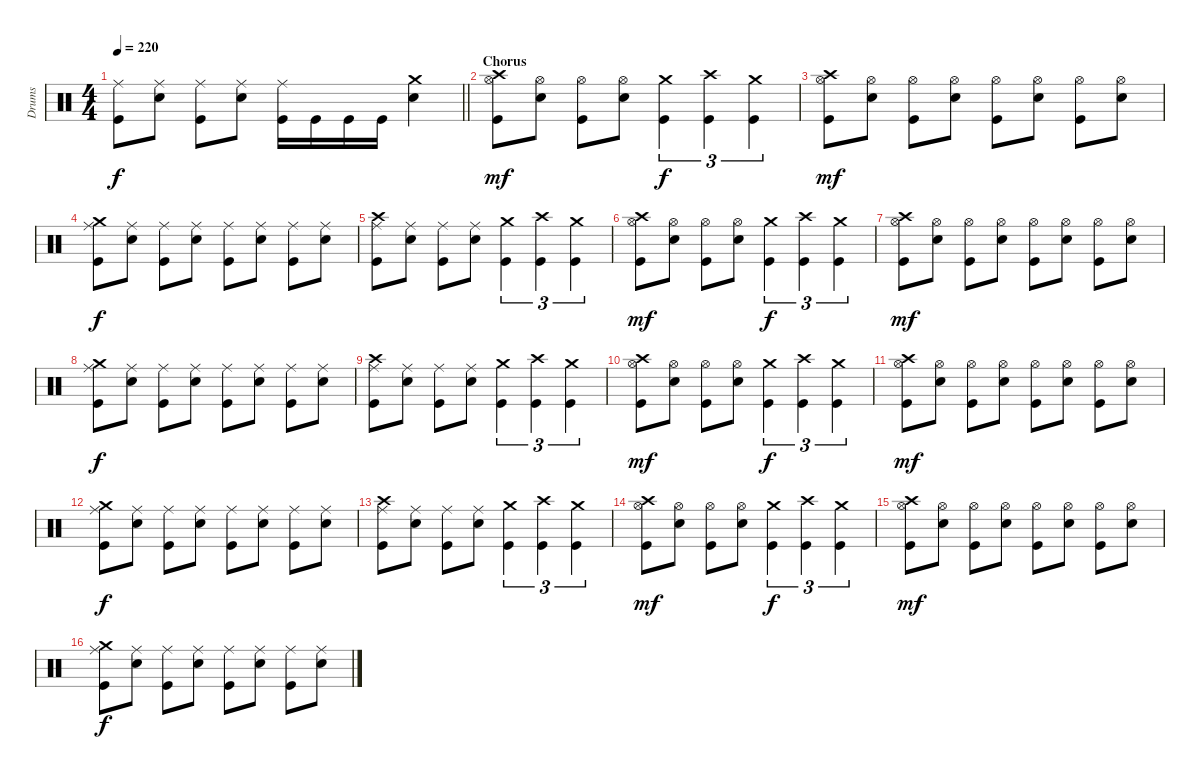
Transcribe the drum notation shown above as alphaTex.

\track ("Drums" "Drums") {instrument percussion}
\staff {score}
\articulation defaults
\ts (4 4)
\tempo 220
\clef neutral
\barLineRight lightlight
\ks c
("Ride (middle)" "Kick (hit)").8{dy f} ("Ride (middle)" "Electric Snare (hit)").8 ("Ride (middle)" "Kick (hit)").8 ("Ride (middle)" "Electric Snare (hit)").8 ("Ride (middle)" "Kick (hit)").16 "Kick (hit)".16 "Kick (hit)".16 "Kick (hit)".16 ("Crash medium (hit)" "Electric Snare (hit)").4 |
\section ("" "Chorus")
("Crash high (hit)" "Hi-Hat (open)" "Kick (hit)").8{dy mf} ("Hi-Hat (open)" "Electric Snare (hit)").8 ("Hi-Hat (open)" "Kick (hit)").8 ("Hi-Hat (open)" "Electric Snare (hit)").8 ("Crash medium (hit)" "Kick (hit)").4{tu (3 2) dy f} ("Crash high (hit)" "Kick (hit)").4{tu (3 2)} ("Crash medium (hit)" "Kick (hit)").4{tu (3 2)} |
("Crash high (hit)" "Hi-Hat (open)" "Kick (hit)").8{dy mf} ("Hi-Hat (open)" "Electric Snare (hit)").8 ("Hi-Hat (open)" "Kick (hit)").8 ("Hi-Hat (open)" "Electric Snare (hit)").8 ("Hi-Hat (open)" "Kick (hit)").8 ("Hi-Hat (open)" "Electric Snare (hit)").8 ("Hi-Hat (open)" "Kick (hit)").8 ("Hi-Hat (open)" "Electric Snare (hit)").8 |
("Crash medium (hit)" "Ride (middle)" "Kick (hit)").8{dy f} ("Ride (middle)" "Electric Snare (hit)").8 ("Ride (middle)" "Kick (hit)").8 ("Ride (middle)" "Electric Snare (hit)").8 ("Ride (middle)" "Kick (hit)").8 ("Ride (middle)" "Electric Snare (hit)").8 ("Ride (middle)" "Kick (hit)").8 ("Ride (middle)" "Electric Snare (hit)").8 |
("Crash high (hit)" "Ride (middle)" "Kick (hit)").8 ("Ride (middle)" "Electric Snare (hit)").8 ("Ride (middle)" "Kick (hit)").8 ("Ride (middle)" "Electric Snare (hit)").8 ("Crash medium (hit)" "Kick (hit)").4{tu (3 2)} ("Crash high (hit)" "Kick (hit)").4{tu (3 2)} ("Crash medium (hit)" "Kick (hit)").4{tu (3 2)} |
("Crash high (hit)" "Hi-Hat (open)" "Kick (hit)").8{dy mf} ("Hi-Hat (open)" "Electric Snare (hit)").8 ("Hi-Hat (open)" "Kick (hit)").8 ("Hi-Hat (open)" "Electric Snare (hit)").8 ("Crash medium (hit)" "Kick (hit)").4{tu (3 2) dy f} ("Crash high (hit)" "Kick (hit)").4{tu (3 2)} ("Crash medium (hit)" "Kick (hit)").4{tu (3 2)} |
("Crash high (hit)" "Hi-Hat (open)" "Kick (hit)").8{dy mf} ("Hi-Hat (open)" "Electric Snare (hit)").8 ("Hi-Hat (open)" "Kick (hit)").8 ("Hi-Hat (open)" "Electric Snare (hit)").8 ("Hi-Hat (open)" "Kick (hit)").8 ("Hi-Hat (open)" "Electric Snare (hit)").8 ("Hi-Hat (open)" "Kick (hit)").8 ("Hi-Hat (open)" "Electric Snare (hit)").8 |
("Crash medium (hit)" "Ride (middle)" "Kick (hit)").8{dy f} ("Ride (middle)" "Electric Snare (hit)").8 ("Ride (middle)" "Kick (hit)").8 ("Ride (middle)" "Electric Snare (hit)").8 ("Ride (middle)" "Kick (hit)").8 ("Ride (middle)" "Electric Snare (hit)").8 ("Ride (middle)" "Kick (hit)").8 ("Ride (middle)" "Electric Snare (hit)").8 |
("Crash high (hit)" "Ride (middle)" "Kick (hit)").8 ("Ride (middle)" "Electric Snare (hit)").8 ("Ride (middle)" "Kick (hit)").8 ("Ride (middle)" "Electric Snare (hit)").8 ("Crash medium (hit)" "Kick (hit)").4{tu (3 2)} ("Crash high (hit)" "Kick (hit)").4{tu (3 2)} ("Crash medium (hit)" "Kick (hit)").4{tu (3 2)} |
("Crash high (hit)" "Hi-Hat (open)" "Kick (hit)").8{dy mf} ("Hi-Hat (open)" "Electric Snare (hit)").8 ("Hi-Hat (open)" "Kick (hit)").8 ("Hi-Hat (open)" "Electric Snare (hit)").8 ("Crash medium (hit)" "Kick (hit)").4{tu (3 2) dy f} ("Crash high (hit)" "Kick (hit)").4{tu (3 2)} ("Crash medium (hit)" "Kick (hit)").4{tu (3 2)} |
("Crash high (hit)" "Hi-Hat (open)" "Kick (hit)").8{dy mf} ("Hi-Hat (open)" "Electric Snare (hit)").8 ("Hi-Hat (open)" "Kick (hit)").8 ("Hi-Hat (open)" "Electric Snare (hit)").8 ("Hi-Hat (open)" "Kick (hit)").8 ("Hi-Hat (open)" "Electric Snare (hit)").8 ("Hi-Hat (open)" "Kick (hit)").8 ("Hi-Hat (open)" "Electric Snare (hit)").8 |
("Crash medium (hit)" "Ride (middle)" "Kick (hit)").8{dy f} ("Ride (middle)" "Electric Snare (hit)").8 ("Ride (middle)" "Kick (hit)").8 ("Ride (middle)" "Electric Snare (hit)").8 ("Ride (middle)" "Kick (hit)").8 ("Ride (middle)" "Electric Snare (hit)").8 ("Ride (middle)" "Kick (hit)").8 ("Ride (middle)" "Electric Snare (hit)").8 |
("Crash high (hit)" "Ride (middle)" "Kick (hit)").8 ("Ride (middle)" "Electric Snare (hit)").8 ("Ride (middle)" "Kick (hit)").8 ("Ride (middle)" "Electric Snare (hit)").8 ("Crash medium (hit)" "Kick (hit)").4{tu (3 2)} ("Crash high (hit)" "Kick (hit)").4{tu (3 2)} ("Crash medium (hit)" "Kick (hit)").4{tu (3 2)} |
("Crash high (hit)" "Hi-Hat (open)" "Kick (hit)").8{dy mf} ("Hi-Hat (open)" "Electric Snare (hit)").8 ("Hi-Hat (open)" "Kick (hit)").8 ("Hi-Hat (open)" "Electric Snare (hit)").8 ("Crash medium (hit)" "Kick (hit)").4{tu (3 2) dy f} ("Crash high (hit)" "Kick (hit)").4{tu (3 2)} ("Crash medium (hit)" "Kick (hit)").4{tu (3 2)} |
("Crash high (hit)" "Hi-Hat (open)" "Kick (hit)").8{dy mf} ("Hi-Hat (open)" "Electric Snare (hit)").8 ("Hi-Hat (open)" "Kick (hit)").8 ("Hi-Hat (open)" "Electric Snare (hit)").8 ("Hi-Hat (open)" "Kick (hit)").8 ("Hi-Hat (open)" "Electric Snare (hit)").8 ("Hi-Hat (open)" "Kick (hit)").8 ("Hi-Hat (open)" "Electric Snare (hit)").8 |
("Crash medium (hit)" "Ride (middle)" "Kick (hit)").8{dy f} ("Ride (middle)" "Electric Snare (hit)").8 ("Ride (middle)" "Kick (hit)").8 ("Ride (middle)" "Electric Snare (hit)").8 ("Ride (middle)" "Kick (hit)").8 ("Ride (middle)" "Electric Snare (hit)").8 ("Ride (middle)" "Kick (hit)").8 ("Ride (middle)" "Electric Snare (hit)").8
